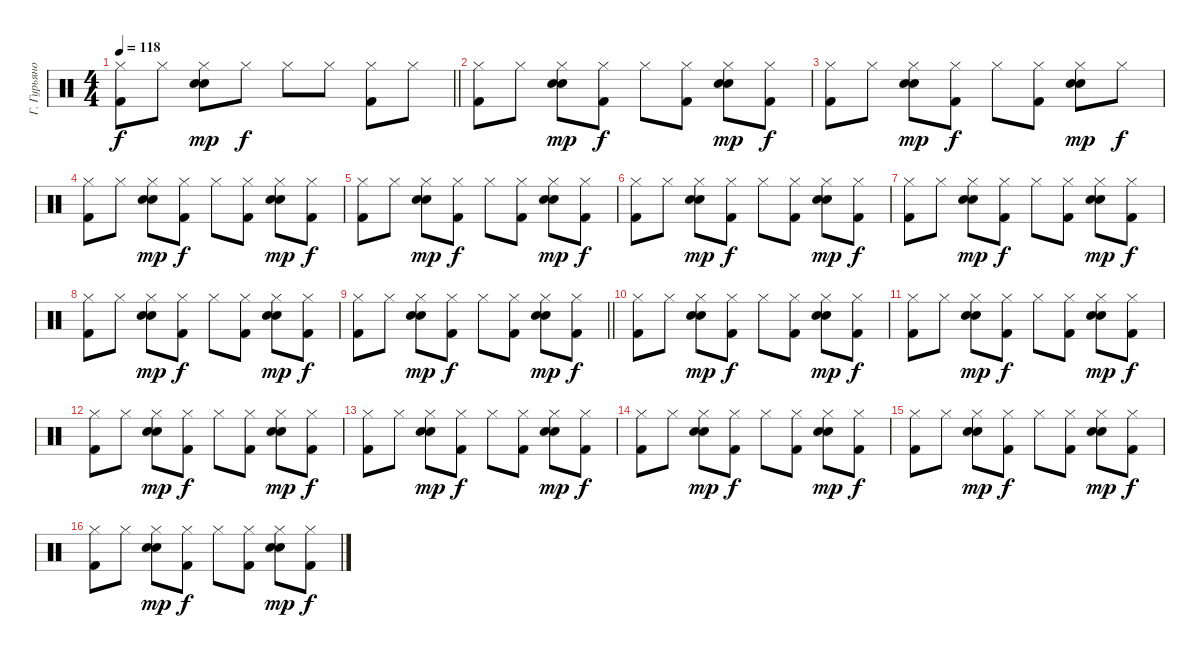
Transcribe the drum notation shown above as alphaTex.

\track ("Г. Гурьянов" "Г. Гурьяно") {instrument percussion}
\staff
\articulation defaults
\ts (4 4)
\tempo 118
\clef neutral
\barLineRight lightlight
\ks c
("Hi-Hat (closed)" "Kick (hit) 2").8{dy f} "Hi-Hat (closed)".8 ("Hi-Hat (closed)" "Electric Snare (hit)" "Snare (hit) 2").8{dy mp} "Hi-Hat (closed)".8{dy f} "Hi-Hat (closed)".8 "Hi-Hat (closed)".8 ("Hi-Hat (closed)" "Kick (hit) 2").8 "Hi-Hat (closed)".8 |
("Hi-Hat (closed)" "Kick (hit) 2").8 "Hi-Hat (closed)".8 ("Hi-Hat (closed)" "Electric Snare (hit)" "Snare (hit) 2").8{dy mp} ("Hi-Hat (closed)" "Kick (hit) 2").8{dy f} "Hi-Hat (closed)".8 ("Hi-Hat (closed)" "Kick (hit) 2").8 ("Hi-Hat (closed)" "Electric Snare (hit)" "Snare (hit) 2").8{dy mp} ("Hi-Hat (closed)" "Kick (hit) 2").8{dy f} |
("Hi-Hat (closed)" "Kick (hit) 2").8 "Hi-Hat (closed)".8 ("Hi-Hat (closed)" "Electric Snare (hit)" "Snare (hit) 2").8{dy mp} ("Hi-Hat (closed)" "Kick (hit) 2").8{dy f} "Hi-Hat (closed)".8 ("Hi-Hat (closed)" "Kick (hit) 2").8 ("Hi-Hat (closed)" "Electric Snare (hit)" "Snare (hit) 2").8{dy mp} "Hi-Hat (closed)".8{dy f} |
("Hi-Hat (closed)" "Kick (hit) 2").8 "Hi-Hat (closed)".8 ("Hi-Hat (closed)" "Electric Snare (hit)" "Snare (hit) 2").8{dy mp} ("Hi-Hat (closed)" "Kick (hit) 2").8{dy f} "Hi-Hat (closed)".8 ("Hi-Hat (closed)" "Kick (hit) 2").8 ("Hi-Hat (closed)" "Electric Snare (hit)" "Snare (hit) 2").8{dy mp} ("Hi-Hat (closed)" "Kick (hit) 2").8{dy f} |
("Hi-Hat (closed)" "Kick (hit) 2").8 "Hi-Hat (closed)".8 ("Hi-Hat (closed)" "Electric Snare (hit)" "Snare (hit) 2").8{dy mp} ("Hi-Hat (closed)" "Kick (hit) 2").8{dy f} "Hi-Hat (closed)".8 ("Hi-Hat (closed)" "Kick (hit) 2").8 ("Hi-Hat (closed)" "Electric Snare (hit)" "Snare (hit) 2").8{dy mp} ("Hi-Hat (closed)" "Kick (hit) 2").8{dy f} |
("Hi-Hat (closed)" "Kick (hit) 2").8 "Hi-Hat (closed)".8 ("Hi-Hat (closed)" "Electric Snare (hit)" "Snare (hit) 2").8{dy mp} ("Hi-Hat (closed)" "Kick (hit) 2").8{dy f} "Hi-Hat (closed)".8 ("Hi-Hat (closed)" "Kick (hit) 2").8 ("Hi-Hat (closed)" "Electric Snare (hit)" "Snare (hit) 2").8{dy mp} ("Hi-Hat (closed)" "Kick (hit) 2").8{dy f} |
("Hi-Hat (closed)" "Kick (hit) 2").8 "Hi-Hat (closed)".8 ("Hi-Hat (closed)" "Electric Snare (hit)" "Snare (hit) 2").8{dy mp} ("Hi-Hat (closed)" "Kick (hit) 2").8{dy f} "Hi-Hat (closed)".8 ("Hi-Hat (closed)" "Kick (hit) 2").8 ("Hi-Hat (closed)" "Electric Snare (hit)" "Snare (hit) 2").8{dy mp} ("Hi-Hat (closed)" "Kick (hit) 2").8{dy f} |
("Hi-Hat (closed)" "Kick (hit) 2").8 "Hi-Hat (closed)".8 ("Hi-Hat (closed)" "Electric Snare (hit)" "Snare (hit) 2").8{dy mp} ("Hi-Hat (closed)" "Kick (hit) 2").8{dy f} "Hi-Hat (closed)".8 ("Hi-Hat (closed)" "Kick (hit) 2").8 ("Hi-Hat (closed)" "Electric Snare (hit)" "Snare (hit) 2").8{dy mp} ("Hi-Hat (closed)" "Kick (hit) 2").8{dy f} |
\barLineRight lightlight
("Hi-Hat (closed)" "Kick (hit) 2").8 "Hi-Hat (closed)".8 ("Hi-Hat (closed)" "Electric Snare (hit)" "Snare (hit) 2").8{dy mp} ("Hi-Hat (closed)" "Kick (hit) 2").8{dy f} "Hi-Hat (closed)".8 ("Hi-Hat (closed)" "Kick (hit) 2").8 ("Hi-Hat (closed)" "Electric Snare (hit)" "Snare (hit) 2").8{dy mp} ("Hi-Hat (closed)" "Kick (hit) 2").8{dy f} |
("Hi-Hat (closed)" "Kick (hit) 2").8 "Hi-Hat (closed)".8 ("Hi-Hat (closed)" "Electric Snare (hit)" "Snare (hit) 2").8{dy mp} ("Hi-Hat (closed)" "Kick (hit) 2").8{dy f} "Hi-Hat (closed)".8 ("Hi-Hat (closed)" "Kick (hit) 2").8 ("Hi-Hat (closed)" "Electric Snare (hit)" "Snare (hit) 2").8{dy mp} ("Hi-Hat (closed)" "Kick (hit) 2").8{dy f} |
("Hi-Hat (closed)" "Kick (hit) 2").8 "Hi-Hat (closed)".8 ("Hi-Hat (closed)" "Electric Snare (hit)" "Snare (hit) 2").8{dy mp} ("Hi-Hat (closed)" "Kick (hit) 2").8{dy f} "Hi-Hat (closed)".8 ("Hi-Hat (closed)" "Kick (hit) 2").8 ("Hi-Hat (closed)" "Electric Snare (hit)" "Snare (hit) 2").8{dy mp} ("Hi-Hat (closed)" "Kick (hit) 2").8{dy f} |
("Hi-Hat (closed)" "Kick (hit) 2").8 "Hi-Hat (closed)".8 ("Hi-Hat (closed)" "Electric Snare (hit)" "Snare (hit) 2").8{dy mp} ("Hi-Hat (closed)" "Kick (hit) 2").8{dy f} "Hi-Hat (closed)".8 ("Hi-Hat (closed)" "Kick (hit) 2").8 ("Hi-Hat (closed)" "Electric Snare (hit)" "Snare (hit) 2").8{dy mp} ("Hi-Hat (closed)" "Kick (hit) 2").8{dy f} |
("Hi-Hat (closed)" "Kick (hit) 2").8 "Hi-Hat (closed)".8 ("Hi-Hat (closed)" "Electric Snare (hit)" "Snare (hit) 2").8{dy mp} ("Hi-Hat (closed)" "Kick (hit) 2").8{dy f} "Hi-Hat (closed)".8 ("Hi-Hat (closed)" "Kick (hit) 2").8 ("Hi-Hat (closed)" "Electric Snare (hit)" "Snare (hit) 2").8{dy mp} ("Hi-Hat (closed)" "Kick (hit) 2").8{dy f} |
("Hi-Hat (closed)" "Kick (hit) 2").8 "Hi-Hat (closed)".8 ("Hi-Hat (closed)" "Electric Snare (hit)" "Snare (hit) 2").8{dy mp} ("Hi-Hat (closed)" "Kick (hit) 2").8{dy f} "Hi-Hat (closed)".8 ("Hi-Hat (closed)" "Kick (hit) 2").8 ("Hi-Hat (closed)" "Electric Snare (hit)" "Snare (hit) 2").8{dy mp} ("Hi-Hat (closed)" "Kick (hit) 2").8{dy f} |
("Hi-Hat (closed)" "Kick (hit) 2").8 "Hi-Hat (closed)".8 ("Hi-Hat (closed)" "Electric Snare (hit)" "Snare (hit) 2").8{dy mp} ("Hi-Hat (closed)" "Kick (hit) 2").8{dy f} "Hi-Hat (closed)".8 ("Hi-Hat (closed)" "Kick (hit) 2").8 ("Hi-Hat (closed)" "Electric Snare (hit)" "Snare (hit) 2").8{dy mp} ("Hi-Hat (closed)" "Kick (hit) 2").8{dy f} |
("Hi-Hat (closed)" "Kick (hit) 2").8 "Hi-Hat (closed)".8 ("Hi-Hat (closed)" "Electric Snare (hit)" "Snare (hit) 2").8{dy mp} ("Hi-Hat (closed)" "Kick (hit) 2").8{dy f} "Hi-Hat (closed)".8 ("Hi-Hat (closed)" "Kick (hit) 2").8 ("Hi-Hat (closed)" "Electric Snare (hit)" "Snare (hit) 2").8{dy mp} ("Hi-Hat (closed)" "Kick (hit) 2").8{dy f}
